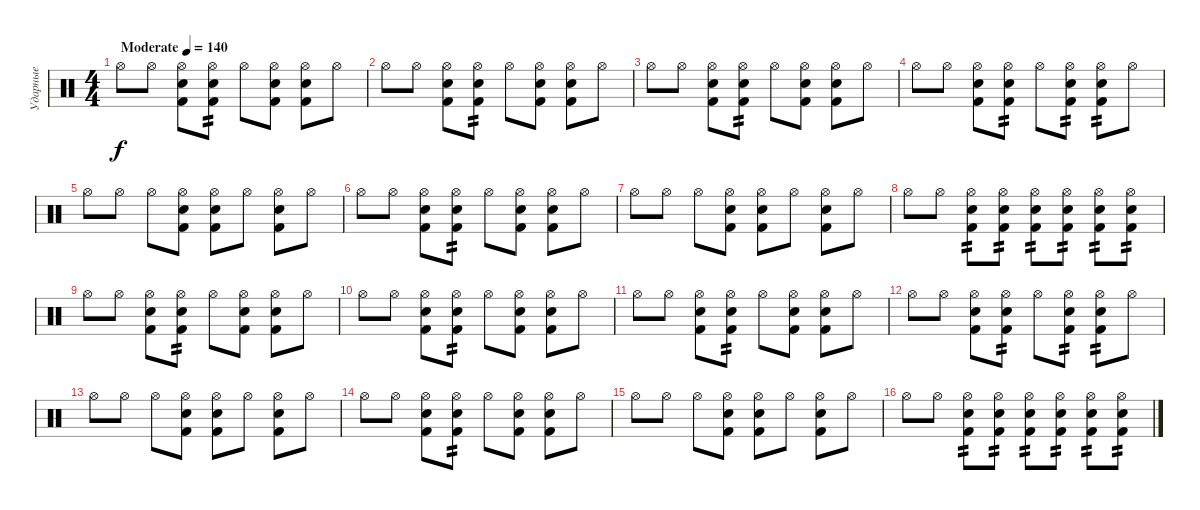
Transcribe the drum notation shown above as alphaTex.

\track ("Ударные" "Ударные") {instrument percussion}
\staff {score}
\articulation defaults
\ts (4 4)
\tempo (140 "Moderate")
\clef neutral
\ks c "Hi-Hat (open)".8{dy f} "Hi-Hat (open)".8
("Snare (hit) 2" "Kick (hit) 2" "Hi-Hat (open)").8 ("Snare (hit) 2" "Kick (hit) 2" "Hi-Hat (open)").8{tp 2} "Hi-Hat (open)".8 ("Snare (hit) 2" "Kick (hit) 2" "Hi-Hat (open)").8 ("Snare (hit) 2" "Kick (hit) 2" "Hi-Hat (open)").8 "Hi-Hat (open)".8 |
"Hi-Hat (open)".8 "Hi-Hat (open)".8 ("Snare (hit) 2" "Kick (hit) 2" "Hi-Hat (open)").8 ("Snare (hit) 2" "Kick (hit) 2" "Hi-Hat (open)").8{tp 2} "Hi-Hat (open)".8 ("Snare (hit) 2" "Kick (hit) 2" "Hi-Hat (open)").8 ("Snare (hit) 2" "Kick (hit) 2" "Hi-Hat (open)").8 "Hi-Hat (open)".8 |
"Hi-Hat (open)".8 "Hi-Hat (open)".8 ("Snare (hit) 2" "Kick (hit) 2" "Hi-Hat (open)").8 ("Snare (hit) 2" "Kick (hit) 2" "Hi-Hat (open)").8{tp 2} "Hi-Hat (open)".8 ("Snare (hit) 2" "Kick (hit) 2" "Hi-Hat (open)").8 ("Snare (hit) 2" "Kick (hit) 2" "Hi-Hat (open)").8 "Hi-Hat (open)".8 |
"Hi-Hat (open)".8 "Hi-Hat (open)".8 ("Snare (hit) 2" "Kick (hit) 2" "Hi-Hat (open)").8 ("Snare (hit) 2" "Kick (hit) 2" "Hi-Hat (open)").8{tp 2} "Hi-Hat (open)".8 ("Snare (hit) 2" "Kick (hit) 2" "Hi-Hat (open)").8{tp 2} ("Snare (hit) 2" "Kick (hit) 2" "Hi-Hat (open)").8{tp 2} "Hi-Hat (open)".8 |
"Hi-Hat (open)".8 "Hi-Hat (open)".8 "Hi-Hat (open)".8 ("Snare (hit) 2" "Kick (hit) 2" "Hi-Hat (open)").8 ("Snare (hit) 2" "Kick (hit) 2" "Hi-Hat (open)").8 "Hi-Hat (open)".8 ("Electric Snare (hit)" "Kick (hit) 2" "Hi-Hat (open)").8 "Hi-Hat (open)".8 |
"Hi-Hat (open)".8 "Hi-Hat (open)".8 ("Snare (hit) 2" "Kick (hit) 2" "Hi-Hat (open)").8 ("Snare (hit) 2" "Kick (hit) 2" "Hi-Hat (open)").8{tp 2} "Hi-Hat (open)".8 ("Snare (hit) 2" "Kick (hit) 2" "Hi-Hat (open)").8 ("Snare (hit) 2" "Kick (hit) 2" "Hi-Hat (open)").8 "Hi-Hat (open)".8 |
"Hi-Hat (open)".8 "Hi-Hat (open)".8 "Hi-Hat (open)".8 ("Snare (hit) 2" "Kick (hit) 2" "Hi-Hat (open)").8 ("Snare (hit) 2" "Kick (hit) 2" "Hi-Hat (open)").8 "Hi-Hat (open)".8 ("Electric Snare (hit)" "Kick (hit) 2" "Hi-Hat (open)").8 "Hi-Hat (open)".8 |
"Hi-Hat (open)".8 "Hi-Hat (open)".8 ("Snare (hit) 2" "Kick (hit) 2" "Hi-Hat (open)").8{tp 2} ("Snare (hit) 2" "Kick (hit) 2" "Hi-Hat (open)").8{tp 2} ("Snare (hit) 2" "Kick (hit) 2" "Hi-Hat (open)").8{tp 2} ("Snare (hit) 2" "Kick (hit) 2" "Hi-Hat (open)").8{tp 2} ("Snare (hit) 2" "Kick (hit) 2" "Hi-Hat (open)").8{tp 2} ("Snare (hit) 2" "Kick (hit) 2" "Hi-Hat (open)").8{tp 2} |
"Hi-Hat (open)".8 "Hi-Hat (open)".8 ("Snare (hit) 2" "Kick (hit) 2" "Hi-Hat (open)").8 ("Snare (hit) 2" "Kick (hit) 2" "Hi-Hat (open)").8{tp 2} "Hi-Hat (open)".8 ("Snare (hit) 2" "Kick (hit) 2" "Hi-Hat (open)").8 ("Snare (hit) 2" "Kick (hit) 2" "Hi-Hat (open)").8 "Hi-Hat (open)".8 |
"Hi-Hat (open)".8 "Hi-Hat (open)".8 ("Snare (hit) 2" "Kick (hit) 2" "Hi-Hat (open)").8 ("Snare (hit) 2" "Kick (hit) 2" "Hi-Hat (open)").8{tp 2} "Hi-Hat (open)".8 ("Snare (hit) 2" "Kick (hit) 2" "Hi-Hat (open)").8 ("Snare (hit) 2" "Kick (hit) 2" "Hi-Hat (open)").8 "Hi-Hat (open)".8 |
"Hi-Hat (open)".8 "Hi-Hat (open)".8 ("Snare (hit) 2" "Kick (hit) 2" "Hi-Hat (open)").8 ("Snare (hit) 2" "Kick (hit) 2" "Hi-Hat (open)").8{tp 2} "Hi-Hat (open)".8 ("Snare (hit) 2" "Kick (hit) 2" "Hi-Hat (open)").8 ("Snare (hit) 2" "Kick (hit) 2" "Hi-Hat (open)").8 "Hi-Hat (open)".8 |
"Hi-Hat (open)".8 "Hi-Hat (open)".8 ("Snare (hit) 2" "Kick (hit) 2" "Hi-Hat (open)").8 ("Snare (hit) 2" "Kick (hit) 2" "Hi-Hat (open)").8{tp 2} "Hi-Hat (open)".8 ("Snare (hit) 2" "Kick (hit) 2" "Hi-Hat (open)").8{tp 2} ("Snare (hit) 2" "Kick (hit) 2" "Hi-Hat (open)").8{tp 2} "Hi-Hat (open)".8 |
"Hi-Hat (open)".8 "Hi-Hat (open)".8 "Hi-Hat (open)".8 ("Snare (hit) 2" "Kick (hit) 2" "Hi-Hat (open)").8 ("Snare (hit) 2" "Kick (hit) 2" "Hi-Hat (open)").8 "Hi-Hat (open)".8 ("Electric Snare (hit)" "Kick (hit) 2" "Hi-Hat (open)").8 "Hi-Hat (open)".8 |
"Hi-Hat (open)".8 "Hi-Hat (open)".8 ("Snare (hit) 2" "Kick (hit) 2" "Hi-Hat (open)").8 ("Snare (hit) 2" "Kick (hit) 2" "Hi-Hat (open)").8{tp 2} "Hi-Hat (open)".8 ("Snare (hit) 2" "Kick (hit) 2" "Hi-Hat (open)").8 ("Snare (hit) 2" "Kick (hit) 2" "Hi-Hat (open)").8 "Hi-Hat (open)".8 |
"Hi-Hat (open)".8 "Hi-Hat (open)".8 "Hi-Hat (open)".8 ("Snare (hit) 2" "Kick (hit) 2" "Hi-Hat (open)").8 ("Snare (hit) 2" "Kick (hit) 2" "Hi-Hat (open)").8 "Hi-Hat (open)".8 ("Electric Snare (hit)" "Kick (hit) 2" "Hi-Hat (open)").8 "Hi-Hat (open)".8 |
"Hi-Hat (open)".8 "Hi-Hat (open)".8 ("Snare (hit) 2" "Kick (hit) 2" "Hi-Hat (open)").8{tp 2} ("Snare (hit) 2" "Kick (hit) 2" "Hi-Hat (open)").8{tp 2} ("Snare (hit) 2" "Kick (hit) 2" "Hi-Hat (open)").8{tp 2} ("Snare (hit) 2" "Kick (hit) 2" "Hi-Hat (open)").8{tp 2} ("Snare (hit) 2" "Kick (hit) 2" "Hi-Hat (open)").8{tp 2} ("Snare (hit) 2" "Kick (hit) 2" "Hi-Hat (open)").8{tp 2}
